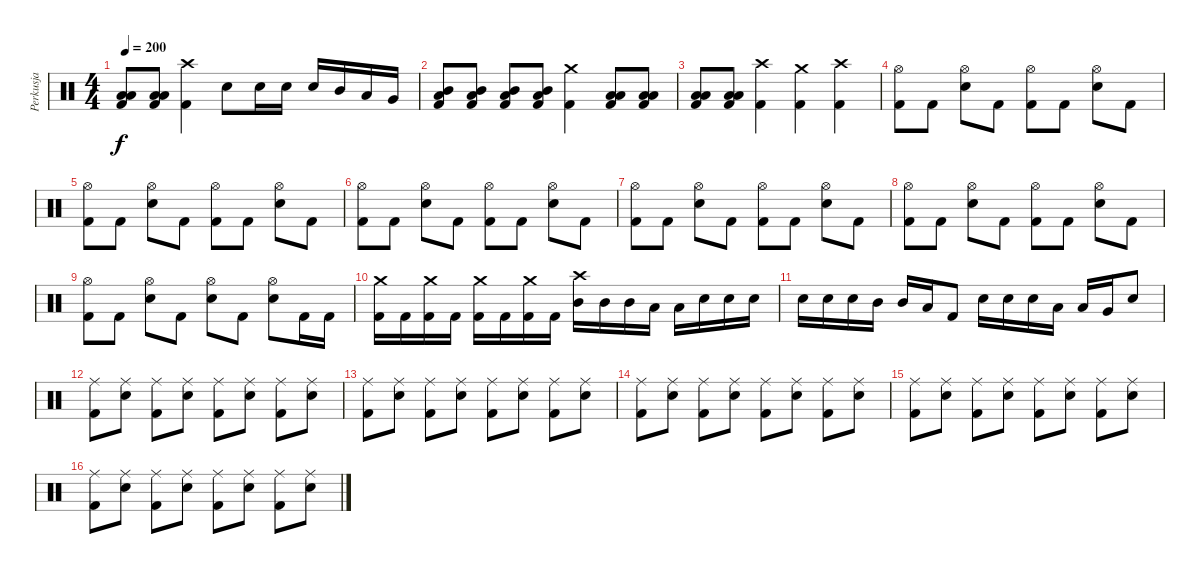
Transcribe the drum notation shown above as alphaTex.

\track ("Perkusja" "Perkusja") {instrument percussion}
\staff {score}
\articulation defaults
\ts (4 4)
\tempo 200
\clef neutral
\ks c
("Low Floor Tom (hit)" "Low Tom (hit)" "Kick (hit) 2").8{dy f} ("Low Floor Tom (hit)" "Low Tom (hit)" "Kick (hit) 2").8 ("Crash high (hit)" "Kick (hit) 2").4 "Snare (hit) 2".8 "Snare (hit) 2".16 "Snare (hit) 2".16 "Snare (hit) 2".16 "Mid Tom (hit)".16 "Low Tom (hit)".16 "Very Low Tom (hit)".16 |
("Mid Tom (hit)" "Low Tom (hit)" "Kick (hit) 2").8 ("Mid Tom (hit)" "Low Tom (hit)" "Kick (hit) 2").8 ("Mid Tom (hit)" "Low Tom (hit)" "Kick (hit) 2").8 ("Mid Tom (hit)" "Low Tom (hit)" "Kick (hit) 2").8 ("Crash medium (hit)" "Kick (hit) 2").4 ("Low Floor Tom (hit)" "Low Tom (hit)" "Kick (hit) 2").8 ("Low Floor Tom (hit)" "Low Tom (hit)" "Kick (hit) 2").8 |
("Low Floor Tom (hit)" "Low Tom (hit)" "Kick (hit) 2").8 ("Low Floor Tom (hit)" "Low Tom (hit)" "Kick (hit) 2").8 ("Crash high (hit)" "Kick (hit) 2").4 ("Crash medium (hit)" "Kick (hit) 2").4 ("Crash high (hit)" "Kick (hit) 2").4 |
("Hi-Hat (open)" "Kick (hit) 2").8 "Kick (hit) 2".8 ("Hi-Hat (open)" "Snare (hit) 2").8 "Kick (hit) 2".8 ("Hi-Hat (open)" "Kick (hit) 2").8 "Kick (hit) 2".8 ("Hi-Hat (open)" "Snare (hit) 2").8 "Kick (hit) 2".8 |
("Hi-Hat (open)" "Kick (hit) 2").8 "Kick (hit) 2".8 ("Hi-Hat (open)" "Snare (hit) 2").8 "Kick (hit) 2".8 ("Hi-Hat (open)" "Kick (hit) 2").8 "Kick (hit) 2".8 ("Hi-Hat (open)" "Snare (hit) 2").8 "Kick (hit) 2".8 |
("Hi-Hat (open)" "Kick (hit) 2").8 "Kick (hit) 2".8 ("Hi-Hat (open)" "Snare (hit) 2").8 "Kick (hit) 2".8 ("Hi-Hat (open)" "Kick (hit) 2").8 "Kick (hit) 2".8 ("Hi-Hat (open)" "Snare (hit) 2").8 "Kick (hit) 2".8 |
("Hi-Hat (open)" "Kick (hit) 2").8 "Kick (hit) 2".8 ("Hi-Hat (open)" "Snare (hit) 2").8 "Kick (hit) 2".8 ("Hi-Hat (open)" "Kick (hit) 2").8 "Kick (hit) 2".8 ("Hi-Hat (open)" "Snare (hit) 2").8 "Kick (hit) 2".8 |
("Hi-Hat (open)" "Kick (hit) 2").8 "Kick (hit) 2".8 ("Hi-Hat (open)" "Snare (hit) 2").8 "Kick (hit) 2".8 ("Hi-Hat (open)" "Kick (hit) 2").8 "Kick (hit) 2".8 ("Hi-Hat (open)" "Snare (hit) 2").8 "Kick (hit) 2".8 |
("Hi-Hat (open)" "Kick (hit) 2").8 "Kick (hit) 2".8 ("Hi-Hat (open)" "Snare (hit) 2").8 "Kick (hit) 2".8 ("Hi-Hat (open)" "Snare (hit) 2").8 "Kick (hit) 2".8 ("Hi-Hat (open)" "Snare (hit) 2").8 "Kick (hit) 2".16 "Kick (hit) 2".16 |
("Crash medium (hit)" "Kick (hit) 2").16 "Kick (hit) 2".16 ("Crash medium (hit)" "Kick (hit) 2").16 "Kick (hit) 2".16 ("Crash medium (hit)" "Kick (hit) 2").16 "Kick (hit) 2".16 ("Crash medium (hit)" "Kick (hit) 2").16 "Kick (hit) 2".16 ("Crash high (hit)" "Mid Tom (hit)").16 "Mid Tom (hit)".16 "Mid Tom (hit)".16 "Low Tom (hit)".16 "Low Tom (hit)".16 "Snare (hit) 2".16 "Snare (hit) 2".16 "Snare (hit) 2".16 |
"Snare (hit) 2".16 "Snare (hit) 2".16 "Snare (hit) 2".16 "Mid Tom (hit)".16 "Mid Tom (hit)".16 "Low Tom (hit)".16 "Kick (hit) 2".8 "Snare (hit) 2".16 "Snare (hit) 2".16 "Snare (hit) 2".16 "Low Tom (hit)".16 "Low Tom (hit)".16 "Very Low Tom (hit)".16 "Snare (hit) 2".8 |
("Ride (middle)" "Kick (hit) 2").8 ("Ride (middle)" "Snare (hit) 2").8 ("Ride (middle)" "Kick (hit) 2").8 ("Ride (middle)" "Snare (hit) 2").8 ("Ride (middle)" "Kick (hit) 2").8 ("Ride (middle)" "Snare (hit) 2").8 ("Ride (middle)" "Kick (hit) 2").8 ("Ride (middle)" "Snare (hit) 2").8 |
("Ride (middle)" "Kick (hit) 2").8 ("Ride (middle)" "Snare (hit) 2").8 ("Ride (middle)" "Kick (hit) 2").8 ("Ride (middle)" "Snare (hit) 2").8 ("Ride (middle)" "Kick (hit) 2").8 ("Ride (middle)" "Snare (hit) 2").8 ("Ride (middle)" "Kick (hit) 2").8 ("Ride (middle)" "Snare (hit) 2").8 |
("Ride (middle)" "Kick (hit) 2").8 ("Ride (middle)" "Snare (hit) 2").8 ("Ride (middle)" "Kick (hit) 2").8 ("Ride (middle)" "Snare (hit) 2").8 ("Ride (middle)" "Kick (hit) 2").8 ("Ride (middle)" "Snare (hit) 2").8 ("Ride (middle)" "Kick (hit) 2").8 ("Ride (middle)" "Snare (hit) 2").8 |
("Ride (middle)" "Kick (hit) 2").8 ("Ride (middle)" "Snare (hit) 2").8 ("Ride (middle)" "Kick (hit) 2").8 ("Ride (middle)" "Snare (hit) 2").8 ("Ride (middle)" "Kick (hit) 2").8 ("Ride (middle)" "Snare (hit) 2").8 ("Ride (middle)" "Kick (hit) 2").8 ("Ride (middle)" "Snare (hit) 2").8 |
("Ride (middle)" "Kick (hit) 2").8 ("Ride (middle)" "Snare (hit) 2").8 ("Ride (middle)" "Kick (hit) 2").8 ("Ride (middle)" "Snare (hit) 2").8 ("Ride (middle)" "Kick (hit) 2").8 ("Ride (middle)" "Snare (hit) 2").8 ("Ride (middle)" "Kick (hit) 2").8 ("Ride (middle)" "Snare (hit) 2").8
